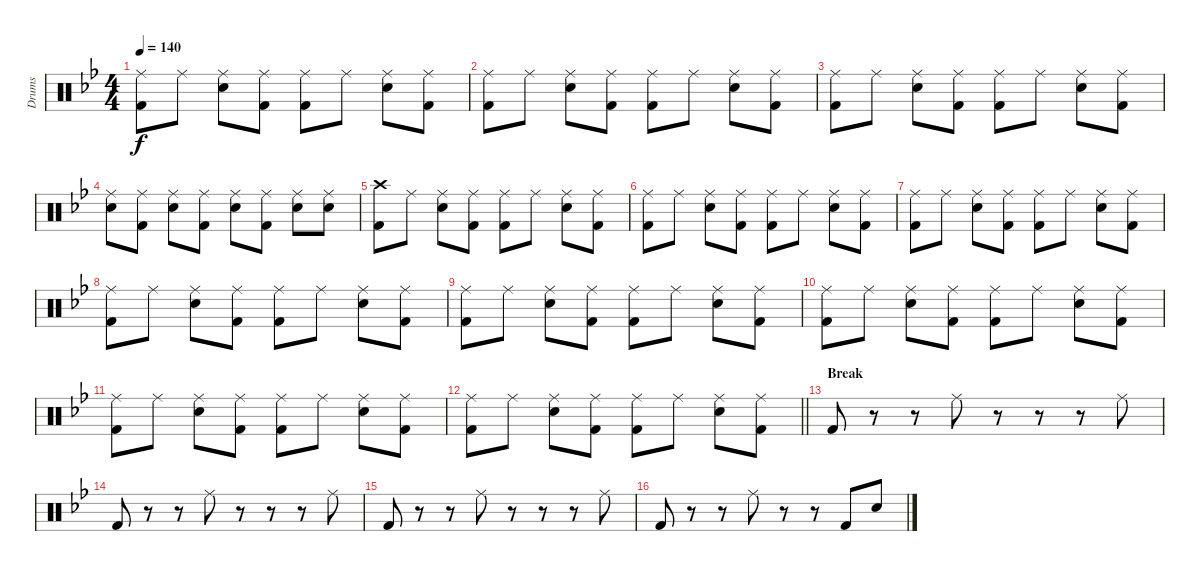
\track ("Drums" "Drums") {instrument percussion}
\staff {score}
\articulation defaults
\ts (4 4)
\tempo 140
\clef neutral
\ks bb
("Ride (middle)" "Kick (hit) 2").8{dy f} "Ride (middle)".8 ("Ride (middle)" "Snare (hit) 2").8 ("Ride (middle)" "Kick (hit) 2").8 ("Ride (middle)" "Kick (hit) 2").8 "Ride (middle)".8 ("Ride (middle)" "Snare (hit) 2").8 ("Ride (middle)" "Kick (hit) 2").8 |
("Ride (middle)" "Kick (hit) 2").8 "Ride (middle)".8 ("Ride (middle)" "Snare (hit) 2").8 ("Ride (middle)" "Kick (hit) 2").8 ("Ride (middle)" "Kick (hit) 2").8 "Ride (middle)".8 ("Ride (middle)" "Snare (hit) 2").8 ("Ride (middle)" "Kick (hit) 2").8 |
("Ride (middle)" "Kick (hit) 2").8 "Ride (middle)".8 ("Ride (middle)" "Snare (hit) 2").8 ("Ride (middle)" "Kick (hit) 2").8 ("Ride (middle)" "Kick (hit) 2").8 "Ride (middle)".8 ("Ride (middle)" "Snare (hit) 2").8 ("Ride (middle)" "Kick (hit) 2").8 |
("Ride (middle)" "Snare (hit) 2").8 ("Ride (middle)" "Kick (hit) 2").8 ("Ride (middle)" "Snare (hit) 2").8 ("Ride (middle)" "Kick (hit) 2").8 ("Ride (middle)" "Snare (hit) 2").8 ("Ride (middle)" "Kick (hit) 2").8 ("Ride (middle)" "Snare (hit) 2").8 ("Ride (middle)" "Snare (hit) 2").8 |
("Crash high (hit)" "Kick (hit) 2").8 "Ride (middle)".8 ("Ride (middle)" "Snare (hit) 2").8 ("Ride (middle)" "Kick (hit) 2").8 ("Ride (middle)" "Kick (hit) 2").8 "Ride (middle)".8 ("Ride (middle)" "Snare (hit) 2").8 ("Ride (middle)" "Kick (hit) 2").8 |
("Ride (middle)" "Kick (hit) 2").8 "Ride (middle)".8 ("Ride (middle)" "Snare (hit) 2").8 ("Ride (middle)" "Kick (hit) 2").8 ("Ride (middle)" "Kick (hit) 2").8 "Ride (middle)".8 ("Ride (middle)" "Snare (hit) 2").8 ("Ride (middle)" "Kick (hit) 2").8 |
("Ride (middle)" "Kick (hit) 2").8 "Ride (middle)".8 ("Ride (middle)" "Snare (hit) 2").8 ("Ride (middle)" "Kick (hit) 2").8 ("Ride (middle)" "Kick (hit) 2").8 "Ride (middle)".8 ("Ride (middle)" "Snare (hit) 2").8 ("Ride (middle)" "Kick (hit) 2").8 |
("Ride (middle)" "Kick (hit) 2").8 "Ride (middle)".8 ("Ride (middle)" "Snare (hit) 2").8 ("Ride (middle)" "Kick (hit) 2").8 ("Ride (middle)" "Kick (hit) 2").8 "Ride (middle)".8 ("Ride (middle)" "Snare (hit) 2").8 ("Ride (middle)" "Kick (hit) 2").8 |
("Ride (middle)" "Kick (hit) 2").8 "Ride (middle)".8 ("Ride (middle)" "Snare (hit) 2").8 ("Ride (middle)" "Kick (hit) 2").8 ("Ride (middle)" "Kick (hit) 2").8 "Ride (middle)".8 ("Ride (middle)" "Snare (hit) 2").8 ("Ride (middle)" "Kick (hit) 2").8 |
("Ride (middle)" "Kick (hit) 2").8 "Ride (middle)".8 ("Ride (middle)" "Snare (hit) 2").8 ("Ride (middle)" "Kick (hit) 2").8 ("Ride (middle)" "Kick (hit) 2").8 "Ride (middle)".8 ("Ride (middle)" "Snare (hit) 2").8 ("Ride (middle)" "Kick (hit) 2").8 |
("Ride (middle)" "Kick (hit) 2").8 "Ride (middle)".8 ("Ride (middle)" "Snare (hit) 2").8 ("Ride (middle)" "Kick (hit) 2").8 ("Ride (middle)" "Kick (hit) 2").8 "Ride (middle)".8 ("Ride (middle)" "Snare (hit) 2").8 ("Ride (middle)" "Kick (hit) 2").8 |
\barLineRight lightlight
("Ride (middle)" "Kick (hit) 2").8 "Ride (middle)".8 ("Ride (middle)" "Snare (hit) 2").8 ("Ride (middle)" "Kick (hit) 2").8 ("Ride (middle)" "Kick (hit) 2").8 "Ride (middle)".8 ("Ride (middle)" "Snare (hit) 2").8 ("Ride (middle)" "Kick (hit) 2").8 |
\section ("" "Break")
"Kick (hit) 2".8 r.8 r.8 "Ride (middle)".8 r.8 r.8 r.8 "Ride (middle)".8 |
"Kick (hit) 2".8 r.8 r.8 "Ride (middle)".8 r.8 r.8 r.8 "Ride (middle)".8 |
"Kick (hit) 2".8 r.8 r.8 "Ride (middle)".8 r.8 r.8 r.8 "Ride (middle)".8 |
"Kick (hit) 2".8 r.8 r.8 "Ride (middle)".8 r.8 r.8 "Kick (hit) 2".8 "Snare (hit) 2".8
